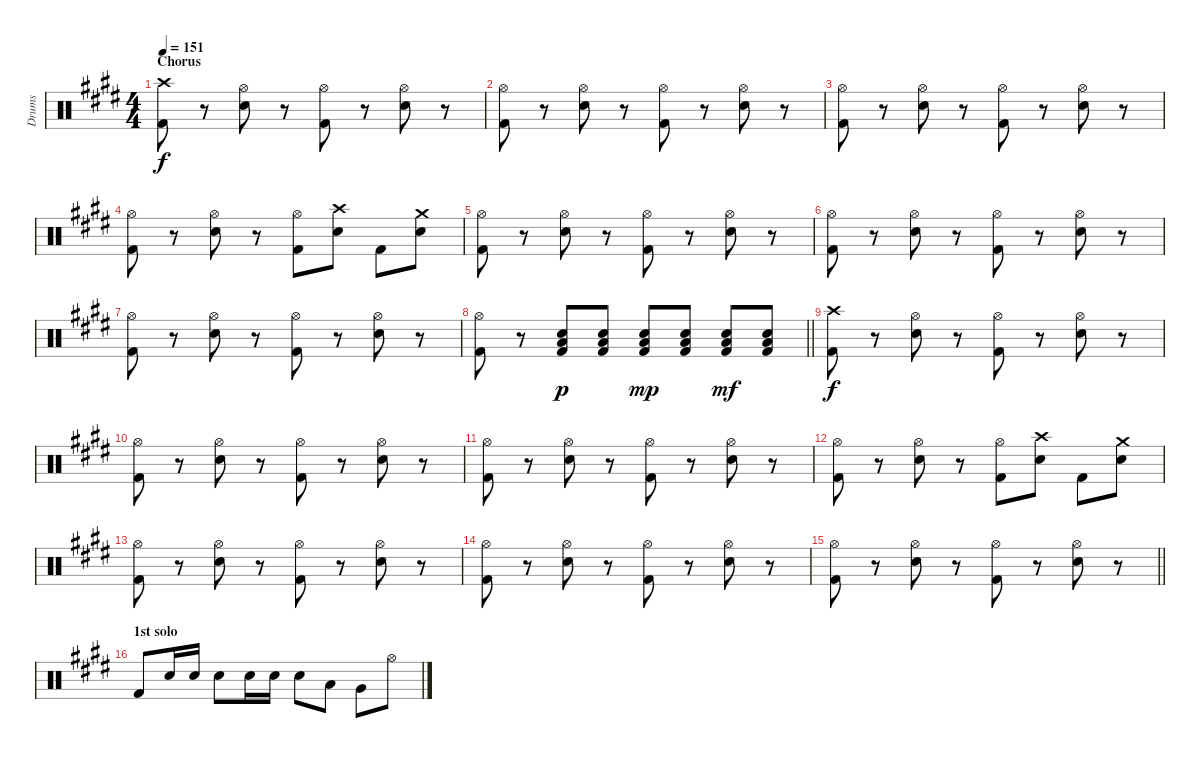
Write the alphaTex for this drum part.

\track ("Drums" "Drums") {instrument percussion}
\staff {score}
\articulation defaults
\ts (4 4)
\section ("" "Chorus")
\tempo 151
\clef neutral
\ks e
("Crash high (hit)" "Kick (hit) 2").8{dy f} r.8 ("Hi-Hat (open)" "Electric Snare (hit)").8 r.8 ("Hi-Hat (open)" "Kick (hit) 2").8 r.8 ("Hi-Hat (open)" "Electric Snare (hit)").8 r.8 |
("Hi-Hat (open)" "Kick (hit) 2").8 r.8 ("Hi-Hat (open)" "Electric Snare (hit)").8 r.8 ("Hi-Hat (open)" "Kick (hit) 2").8 r.8 ("Hi-Hat (open)" "Electric Snare (hit)").8 r.8 |
("Hi-Hat (open)" "Kick (hit) 2").8 r.8 ("Hi-Hat (open)" "Electric Snare (hit)").8 r.8 ("Hi-Hat (open)" "Kick (hit) 2").8 r.8 ("Hi-Hat (open)" "Electric Snare (hit)").8 r.8 |
("Hi-Hat (open)" "Kick (hit) 2").8 r.8 ("Hi-Hat (open)" "Electric Snare (hit)").8 r.8 ("Hi-Hat (open)" "Kick (hit) 2").8 ("Crash high (hit)" "Electric Snare (hit)").8 "Kick (hit) 2".8 ("Crash medium (hit)" "Electric Snare (hit)").8 |
("Hi-Hat (open)" "Kick (hit) 2").8 r.8 ("Hi-Hat (open)" "Electric Snare (hit)").8 r.8 ("Hi-Hat (open)" "Kick (hit) 2").8 r.8 ("Hi-Hat (open)" "Electric Snare (hit)").8 r.8 |
("Hi-Hat (open)" "Kick (hit) 2").8 r.8 ("Hi-Hat (open)" "Electric Snare (hit)").8 r.8 ("Hi-Hat (open)" "Kick (hit) 2").8 r.8 ("Hi-Hat (open)" "Electric Snare (hit)").8 r.8 |
("Hi-Hat (open)" "Kick (hit) 2").8 r.8 ("Hi-Hat (open)" "Electric Snare (hit)").8 r.8 ("Hi-Hat (open)" "Kick (hit) 2").8 r.8 ("Hi-Hat (open)" "Electric Snare (hit)").8 r.8 |
\barLineRight lightlight
("Hi-Hat (open)" "Kick (hit) 2").8 r.8 ("Electric Snare (hit)" "Low Tom (hit)" "Kick (hit) 2").8{dy p} ("Electric Snare (hit)" "Low Tom (hit)" "Kick (hit) 2").8 ("Electric Snare (hit)" "Low Tom (hit)" "Kick (hit) 2").8{dy mp} ("Electric Snare (hit)" "Low Tom (hit)" "Kick (hit) 2").8 ("Electric Snare (hit)" "Low Tom (hit)" "Kick (hit) 2").8{dy mf} ("Electric Snare (hit)" "Low Tom (hit)" "Kick (hit) 2").8 |
("Crash high (hit)" "Kick (hit) 2").8{dy f} r.8 ("Hi-Hat (open)" "Electric Snare (hit)").8 r.8 ("Hi-Hat (open)" "Kick (hit) 2").8 r.8 ("Hi-Hat (open)" "Electric Snare (hit)").8 r.8 |
("Hi-Hat (open)" "Kick (hit) 2").8 r.8 ("Hi-Hat (open)" "Electric Snare (hit)").8 r.8 ("Hi-Hat (open)" "Kick (hit) 2").8 r.8 ("Hi-Hat (open)" "Electric Snare (hit)").8 r.8 |
("Hi-Hat (open)" "Kick (hit) 2").8 r.8 ("Hi-Hat (open)" "Electric Snare (hit)").8 r.8 ("Hi-Hat (open)" "Kick (hit) 2").8 r.8 ("Hi-Hat (open)" "Electric Snare (hit)").8 r.8 |
("Hi-Hat (open)" "Kick (hit) 2").8 r.8 ("Hi-Hat (open)" "Electric Snare (hit)").8 r.8 ("Hi-Hat (open)" "Kick (hit) 2").8 ("Crash high (hit)" "Electric Snare (hit)").8 "Kick (hit) 2".8 ("Crash medium (hit)" "Electric Snare (hit)").8 |
("Hi-Hat (open)" "Kick (hit) 2").8 r.8 ("Hi-Hat (open)" "Electric Snare (hit)").8 r.8 ("Hi-Hat (open)" "Kick (hit) 2").8 r.8 ("Hi-Hat (open)" "Electric Snare (hit)").8 r.8 |
("Hi-Hat (open)" "Kick (hit) 2").8 r.8 ("Hi-Hat (open)" "Electric Snare (hit)").8 r.8 ("Hi-Hat (open)" "Kick (hit) 2").8 r.8 ("Hi-Hat (open)" "Electric Snare (hit)").8 r.8 |
\barLineRight lightlight
("Hi-Hat (open)" "Kick (hit) 2").8 r.8 ("Hi-Hat (open)" "Electric Snare (hit)").8 r.8 ("Hi-Hat (open)" "Kick (hit) 2").8 r.8 ("Hi-Hat (open)" "Electric Snare (hit)").8 r.8 |
\section ("" "1st solo")
"Kick (hit) 2".8 "Electric Snare (hit)".16 "Electric Snare (hit)".16 "Electric Snare (hit)".8 "Electric Snare (hit)".16 "Electric Snare (hit)".16 "Electric Snare (hit)".8 "Low Tom (hit)".8 "Very Low Tom (hit)".8 "Hi-Hat (open)".8
